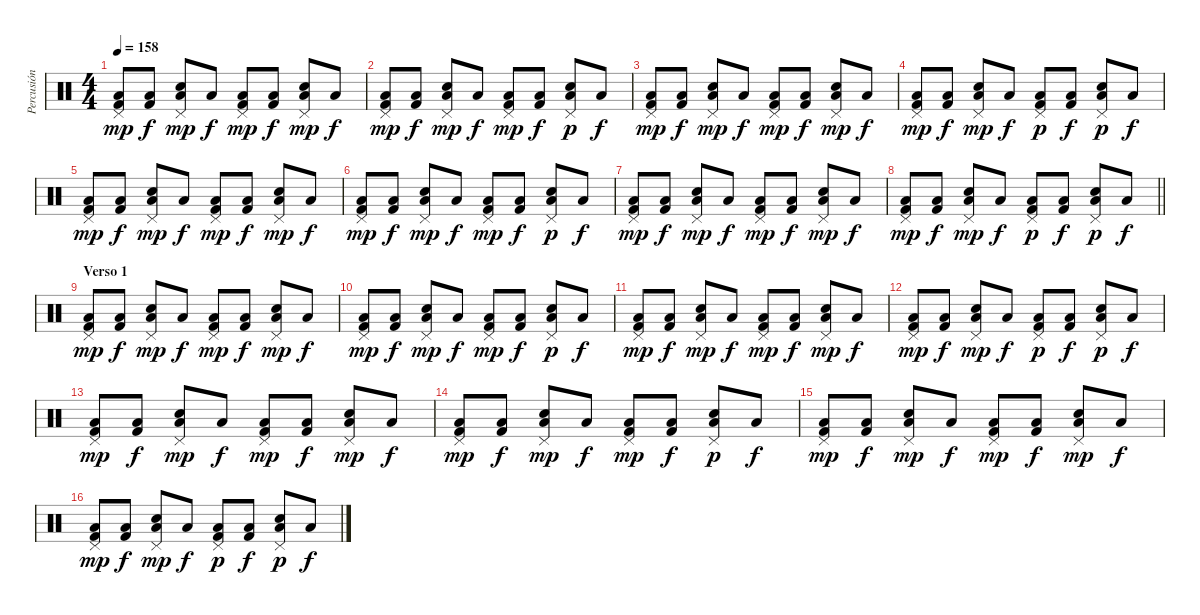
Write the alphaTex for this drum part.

\track ("Percusión" "Percusión") {instrument percussion}
\staff {score}
\articulation defaults
\ts (4 4)
\tempo 158
\clef neutral
\ks c
("Pedal Hi-Hat (hit)" "Low Floor Tom (hit)" "Kick (hit) 2").8{dy mp} ("Low Floor Tom (hit)" "Kick (hit) 2").8{dy f} ("Pedal Hi-Hat (hit)" "Low Floor Tom (hit)" "Electric Snare (hit)").8{dy mp} "Low Floor Tom (hit)".8{dy f} ("Pedal Hi-Hat (hit)" "Low Floor Tom (hit)" "Kick (hit) 2").8{dy mp} ("Low Floor Tom (hit)" "Kick (hit) 2").8{dy f} ("Pedal Hi-Hat (hit)" "Low Floor Tom (hit)" "Electric Snare (hit)").8{dy mp} "Low Floor Tom (hit)".8{dy f} |
("Pedal Hi-Hat (hit)" "Low Floor Tom (hit)" "Kick (hit) 2").8{dy mp} ("Low Floor Tom (hit)" "Kick (hit) 2").8{dy f} ("Pedal Hi-Hat (hit)" "Low Floor Tom (hit)" "Electric Snare (hit)").8{dy mp} "Low Floor Tom (hit)".8{dy f} ("Pedal Hi-Hat (hit)" "Low Floor Tom (hit)" "Kick (hit) 2").8{dy mp} ("Low Floor Tom (hit)" "Kick (hit) 2").8{dy f} ("Pedal Hi-Hat (hit)" "Low Floor Tom (hit)" "Electric Snare (hit)").8{dy p} "Low Floor Tom (hit)".8{dy f} |
("Pedal Hi-Hat (hit)" "Low Floor Tom (hit)" "Kick (hit) 2").8{dy mp} ("Low Floor Tom (hit)" "Kick (hit) 2").8{dy f} ("Pedal Hi-Hat (hit)" "Low Floor Tom (hit)" "Electric Snare (hit)").8{dy mp} "Low Floor Tom (hit)".8{dy f} ("Pedal Hi-Hat (hit)" "Low Floor Tom (hit)" "Kick (hit) 2").8{dy mp} ("Low Floor Tom (hit)" "Kick (hit) 2").8{dy f} ("Pedal Hi-Hat (hit)" "Low Floor Tom (hit)" "Electric Snare (hit)").8{dy mp} "Low Floor Tom (hit)".8{dy f} |
("Pedal Hi-Hat (hit)" "Low Floor Tom (hit)" "Kick (hit) 2").8{dy mp} ("Low Floor Tom (hit)" "Kick (hit) 2").8{dy f} ("Pedal Hi-Hat (hit)" "Low Floor Tom (hit)" "Electric Snare (hit)").8{dy mp} "Low Floor Tom (hit)".8{dy f} ("Pedal Hi-Hat (hit)" "Low Floor Tom (hit)" "Kick (hit) 2").8{dy p} ("Low Floor Tom (hit)" "Kick (hit) 2").8{dy f} ("Pedal Hi-Hat (hit)" "Low Floor Tom (hit)" "Electric Snare (hit)").8{dy p} "Low Floor Tom (hit)".8{dy f} |
("Pedal Hi-Hat (hit)" "Low Floor Tom (hit)" "Kick (hit) 2").8{dy mp} ("Low Floor Tom (hit)" "Kick (hit) 2").8{dy f} ("Pedal Hi-Hat (hit)" "Low Floor Tom (hit)" "Electric Snare (hit)").8{dy mp} "Low Floor Tom (hit)".8{dy f} ("Pedal Hi-Hat (hit)" "Low Floor Tom (hit)" "Kick (hit) 2").8{dy mp} ("Low Floor Tom (hit)" "Kick (hit) 2").8{dy f} ("Pedal Hi-Hat (hit)" "Low Floor Tom (hit)" "Electric Snare (hit)").8{dy mp} "Low Floor Tom (hit)".8{dy f} |
("Pedal Hi-Hat (hit)" "Low Floor Tom (hit)" "Kick (hit) 2").8{dy mp} ("Low Floor Tom (hit)" "Kick (hit) 2").8{dy f} ("Pedal Hi-Hat (hit)" "Low Floor Tom (hit)" "Electric Snare (hit)").8{dy mp} "Low Floor Tom (hit)".8{dy f} ("Pedal Hi-Hat (hit)" "Low Floor Tom (hit)" "Kick (hit) 2").8{dy mp} ("Low Floor Tom (hit)" "Kick (hit) 2").8{dy f} ("Pedal Hi-Hat (hit)" "Low Floor Tom (hit)" "Electric Snare (hit)").8{dy p} "Low Floor Tom (hit)".8{dy f} |
("Pedal Hi-Hat (hit)" "Low Floor Tom (hit)" "Kick (hit) 2").8{dy mp} ("Low Floor Tom (hit)" "Kick (hit) 2").8{dy f} ("Pedal Hi-Hat (hit)" "Low Floor Tom (hit)" "Electric Snare (hit)").8{dy mp} "Low Floor Tom (hit)".8{dy f} ("Pedal Hi-Hat (hit)" "Low Floor Tom (hit)" "Kick (hit) 2").8{dy mp} ("Low Floor Tom (hit)" "Kick (hit) 2").8{dy f} ("Pedal Hi-Hat (hit)" "Low Floor Tom (hit)" "Electric Snare (hit)").8{dy mp} "Low Floor Tom (hit)".8{dy f} |
\barLineRight lightlight
("Pedal Hi-Hat (hit)" "Low Floor Tom (hit)" "Kick (hit) 2").8{dy mp} ("Low Floor Tom (hit)" "Kick (hit) 2").8{dy f} ("Pedal Hi-Hat (hit)" "Low Floor Tom (hit)" "Electric Snare (hit)").8{dy mp} "Low Floor Tom (hit)".8{dy f} ("Pedal Hi-Hat (hit)" "Low Floor Tom (hit)" "Kick (hit) 2").8{dy p} ("Low Floor Tom (hit)" "Kick (hit) 2").8{dy f} ("Pedal Hi-Hat (hit)" "Low Floor Tom (hit)" "Electric Snare (hit)").8{dy p} "Low Floor Tom (hit)".8{dy f} |
\section ("" "Verso 1")
("Pedal Hi-Hat (hit)" "Low Floor Tom (hit)" "Kick (hit) 2").8{dy mp} ("Low Floor Tom (hit)" "Kick (hit) 2").8{dy f} ("Pedal Hi-Hat (hit)" "Low Floor Tom (hit)" "Electric Snare (hit)").8{dy mp} "Low Floor Tom (hit)".8{dy f} ("Pedal Hi-Hat (hit)" "Low Floor Tom (hit)" "Kick (hit) 2").8{dy mp} ("Low Floor Tom (hit)" "Kick (hit) 2").8{dy f} ("Pedal Hi-Hat (hit)" "Low Floor Tom (hit)" "Electric Snare (hit)").8{dy mp} "Low Floor Tom (hit)".8{dy f} |
("Pedal Hi-Hat (hit)" "Low Floor Tom (hit)" "Kick (hit) 2").8{dy mp} ("Low Floor Tom (hit)" "Kick (hit) 2").8{dy f} ("Pedal Hi-Hat (hit)" "Low Floor Tom (hit)" "Electric Snare (hit)").8{dy mp} "Low Floor Tom (hit)".8{dy f} ("Pedal Hi-Hat (hit)" "Low Floor Tom (hit)" "Kick (hit) 2").8{dy mp} ("Low Floor Tom (hit)" "Kick (hit) 2").8{dy f} ("Pedal Hi-Hat (hit)" "Low Floor Tom (hit)" "Electric Snare (hit)").8{dy p} "Low Floor Tom (hit)".8{dy f} |
("Pedal Hi-Hat (hit)" "Low Floor Tom (hit)" "Kick (hit) 2").8{dy mp} ("Low Floor Tom (hit)" "Kick (hit) 2").8{dy f} ("Pedal Hi-Hat (hit)" "Low Floor Tom (hit)" "Electric Snare (hit)").8{dy mp} "Low Floor Tom (hit)".8{dy f} ("Pedal Hi-Hat (hit)" "Low Floor Tom (hit)" "Kick (hit) 2").8{dy mp} ("Low Floor Tom (hit)" "Kick (hit) 2").8{dy f} ("Pedal Hi-Hat (hit)" "Low Floor Tom (hit)" "Electric Snare (hit)").8{dy mp} "Low Floor Tom (hit)".8{dy f} |
("Pedal Hi-Hat (hit)" "Low Floor Tom (hit)" "Kick (hit) 2").8{dy mp} ("Low Floor Tom (hit)" "Kick (hit) 2").8{dy f} ("Pedal Hi-Hat (hit)" "Low Floor Tom (hit)" "Electric Snare (hit)").8{dy mp} "Low Floor Tom (hit)".8{dy f} ("Pedal Hi-Hat (hit)" "Low Floor Tom (hit)" "Kick (hit) 2").8{dy p} ("Low Floor Tom (hit)" "Kick (hit) 2").8{dy f} ("Pedal Hi-Hat (hit)" "Low Floor Tom (hit)" "Electric Snare (hit)").8{dy p} "Low Floor Tom (hit)".8{dy f} |
("Pedal Hi-Hat (hit)" "Low Floor Tom (hit)" "Kick (hit) 2").8{dy mp} ("Low Floor Tom (hit)" "Kick (hit) 2").8{dy f} ("Pedal Hi-Hat (hit)" "Low Floor Tom (hit)" "Electric Snare (hit)").8{dy mp} "Low Floor Tom (hit)".8{dy f} ("Pedal Hi-Hat (hit)" "Low Floor Tom (hit)" "Kick (hit) 2").8{dy mp} ("Low Floor Tom (hit)" "Kick (hit) 2").8{dy f} ("Pedal Hi-Hat (hit)" "Low Floor Tom (hit)" "Electric Snare (hit)").8{dy mp} "Low Floor Tom (hit)".8{dy f} |
("Pedal Hi-Hat (hit)" "Low Floor Tom (hit)" "Kick (hit) 2").8{dy mp} ("Low Floor Tom (hit)" "Kick (hit) 2").8{dy f} ("Pedal Hi-Hat (hit)" "Low Floor Tom (hit)" "Electric Snare (hit)").8{dy mp} "Low Floor Tom (hit)".8{dy f} ("Pedal Hi-Hat (hit)" "Low Floor Tom (hit)" "Kick (hit) 2").8{dy mp} ("Low Floor Tom (hit)" "Kick (hit) 2").8{dy f} ("Pedal Hi-Hat (hit)" "Low Floor Tom (hit)" "Electric Snare (hit)").8{dy p} "Low Floor Tom (hit)".8{dy f} |
("Pedal Hi-Hat (hit)" "Low Floor Tom (hit)" "Kick (hit) 2").8{dy mp} ("Low Floor Tom (hit)" "Kick (hit) 2").8{dy f} ("Pedal Hi-Hat (hit)" "Low Floor Tom (hit)" "Electric Snare (hit)").8{dy mp} "Low Floor Tom (hit)".8{dy f} ("Pedal Hi-Hat (hit)" "Low Floor Tom (hit)" "Kick (hit) 2").8{dy mp} ("Low Floor Tom (hit)" "Kick (hit) 2").8{dy f} ("Pedal Hi-Hat (hit)" "Low Floor Tom (hit)" "Electric Snare (hit)").8{dy mp} "Low Floor Tom (hit)".8{dy f} |
("Pedal Hi-Hat (hit)" "Low Floor Tom (hit)" "Kick (hit) 2").8{dy mp} ("Low Floor Tom (hit)" "Kick (hit) 2").8{dy f} ("Pedal Hi-Hat (hit)" "Low Floor Tom (hit)" "Electric Snare (hit)").8{dy mp} "Low Floor Tom (hit)".8{dy f} ("Pedal Hi-Hat (hit)" "Low Floor Tom (hit)" "Kick (hit) 2").8{dy p} ("Low Floor Tom (hit)" "Kick (hit) 2").8{dy f} ("Pedal Hi-Hat (hit)" "Low Floor Tom (hit)" "Electric Snare (hit)").8{dy p} "Low Floor Tom (hit)".8{dy f}
